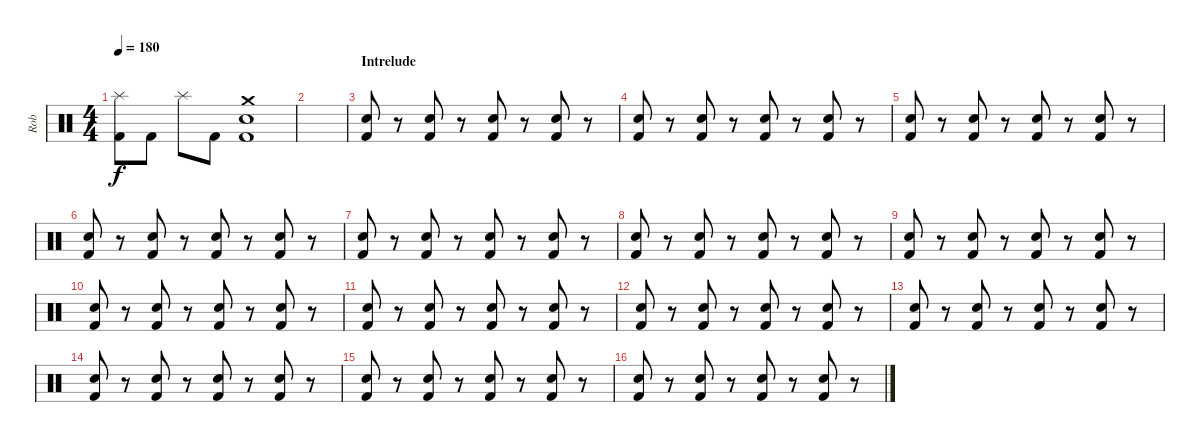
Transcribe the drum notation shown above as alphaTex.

\track ("Rob" "Rob") {instrument percussion}
\staff {score}
\articulation defaults
\ts (4 4)
\tempo 180
\clef neutral
\ks c
("Splash (hit)" "Kick (hit) 2").8{dy f} "Kick (hit) 2".8 "Splash (hit)".8 "Kick (hit) 2".8 ("Crash medium (hit)" "Electric Snare (hit)" "Kick (hit) 2").1 |
|
\section ("" "Intrelude")
("Electric Snare (hit)" "Kick (hit) 2").8 r.8 ("Electric Snare (hit)" "Kick (hit) 2").8 r.8 ("Electric Snare (hit)" "Kick (hit) 2").8 r.8 ("Electric Snare (hit)" "Kick (hit) 2").8 r.8 |
("Electric Snare (hit)" "Kick (hit) 2").8 r.8 ("Electric Snare (hit)" "Kick (hit) 2").8 r.8 ("Electric Snare (hit)" "Kick (hit) 2").8 r.8 ("Electric Snare (hit)" "Kick (hit) 2").8 r.8 |
("Electric Snare (hit)" "Kick (hit) 2").8 r.8 ("Electric Snare (hit)" "Kick (hit) 2").8 r.8 ("Electric Snare (hit)" "Kick (hit) 2").8 r.8 ("Electric Snare (hit)" "Kick (hit) 2").8 r.8 |
("Electric Snare (hit)" "Kick (hit) 2").8 r.8 ("Electric Snare (hit)" "Kick (hit) 2").8 r.8 ("Electric Snare (hit)" "Kick (hit) 2").8 r.8 ("Electric Snare (hit)" "Kick (hit) 2").8 r.8 |
("Electric Snare (hit)" "Kick (hit) 2").8 r.8 ("Electric Snare (hit)" "Kick (hit) 2").8 r.8 ("Electric Snare (hit)" "Kick (hit) 2").8 r.8 ("Electric Snare (hit)" "Kick (hit) 2").8 r.8 |
("Electric Snare (hit)" "Kick (hit) 2").8 r.8 ("Electric Snare (hit)" "Kick (hit) 2").8 r.8 ("Electric Snare (hit)" "Kick (hit) 2").8 r.8 ("Electric Snare (hit)" "Kick (hit) 2").8 r.8 |
("Electric Snare (hit)" "Kick (hit) 2").8 r.8 ("Electric Snare (hit)" "Kick (hit) 2").8 r.8 ("Electric Snare (hit)" "Kick (hit) 2").8 r.8 ("Electric Snare (hit)" "Kick (hit) 2").8 r.8 |
("Electric Snare (hit)" "Kick (hit) 2").8 r.8 ("Electric Snare (hit)" "Kick (hit) 2").8 r.8 ("Electric Snare (hit)" "Kick (hit) 2").8 r.8 ("Electric Snare (hit)" "Kick (hit) 2").8 r.8 |
("Electric Snare (hit)" "Kick (hit) 2").8 r.8 ("Electric Snare (hit)" "Kick (hit) 2").8 r.8 ("Electric Snare (hit)" "Kick (hit) 2").8 r.8 ("Electric Snare (hit)" "Kick (hit) 2").8 r.8 |
("Electric Snare (hit)" "Kick (hit) 2").8 r.8 ("Electric Snare (hit)" "Kick (hit) 2").8 r.8 ("Electric Snare (hit)" "Kick (hit) 2").8 r.8 ("Electric Snare (hit)" "Kick (hit) 2").8 r.8 |
("Electric Snare (hit)" "Kick (hit) 2").8 r.8 ("Electric Snare (hit)" "Kick (hit) 2").8 r.8 ("Electric Snare (hit)" "Kick (hit) 2").8 r.8 ("Electric Snare (hit)" "Kick (hit) 2").8 r.8 |
("Electric Snare (hit)" "Kick (hit) 2").8 r.8 ("Electric Snare (hit)" "Kick (hit) 2").8 r.8 ("Electric Snare (hit)" "Kick (hit) 2").8 r.8 ("Electric Snare (hit)" "Kick (hit) 2").8 r.8 |
("Electric Snare (hit)" "Kick (hit) 2").8 r.8 ("Electric Snare (hit)" "Kick (hit) 2").8 r.8 ("Electric Snare (hit)" "Kick (hit) 2").8 r.8 ("Electric Snare (hit)" "Kick (hit) 2").8 r.8 |
("Electric Snare (hit)" "Kick (hit) 2").8 r.8 ("Electric Snare (hit)" "Kick (hit) 2").8 r.8 ("Electric Snare (hit)" "Kick (hit) 2").8 r.8 ("Electric Snare (hit)" "Kick (hit) 2").8 r.8
